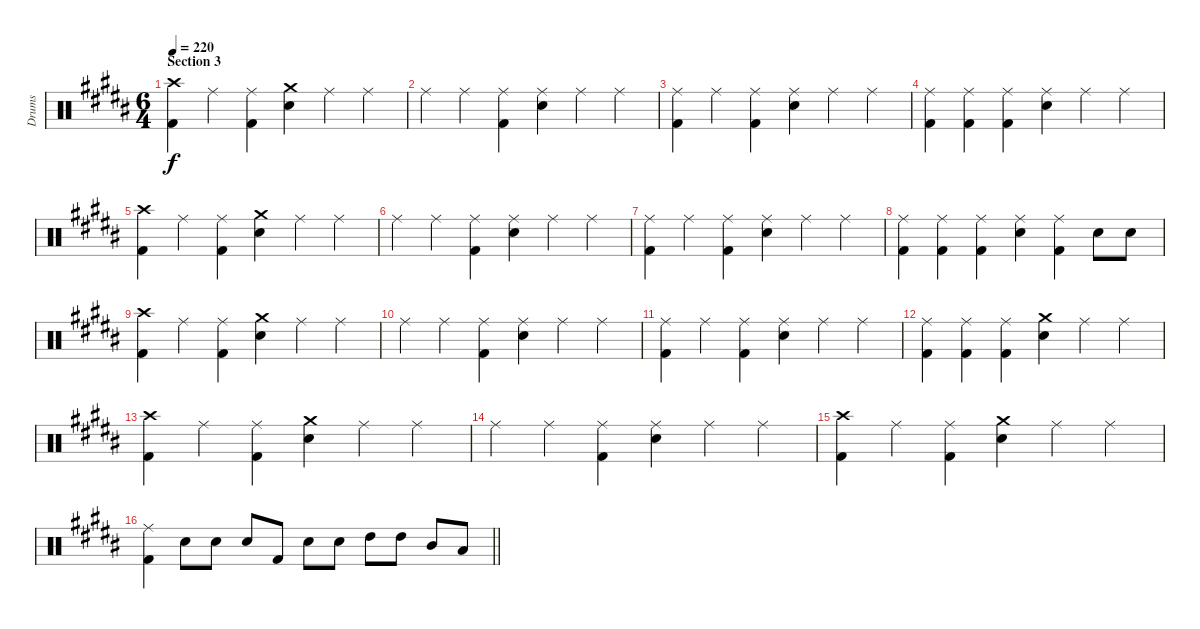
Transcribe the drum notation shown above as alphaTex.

\track ("Drums" "Drums") {instrument percussion}
\staff {score}
\articulation defaults
\ts (6 4)
\section ("" "Section 3")
\tempo 220
\clef neutral
\ks g#minor
("Crash high (hit)" "Kick (hit) 2").4{dy f} "Ride (middle)".4 ("Ride (middle)" "Kick (hit) 2").4 ("Crash medium (hit)" "Electric Snare (hit)").4 "Ride (middle)".4 "Ride (middle)".4 |
"Ride (middle)".4 "Ride (middle)".4 ("Ride (middle)" "Kick (hit) 2").4 ("Ride (middle)" "Electric Snare (hit)").4 "Ride (middle)".4 "Ride (middle)".4 |
("Ride (middle)" "Kick (hit) 2").4 "Ride (middle)".4 ("Ride (middle)" "Kick (hit) 2").4 ("Ride (middle)" "Electric Snare (hit)").4 "Ride (middle)".4 "Ride (middle)".4 |
("Ride (middle)" "Kick (hit) 2").4 ("Ride (middle)" "Kick (hit) 2").4 ("Ride (middle)" "Kick (hit) 2").4 ("Ride (middle)" "Electric Snare (hit)").4 "Ride (middle)".4 "Ride (middle)".4 |
("Crash high (hit)" "Kick (hit) 2").4 "Ride (middle)".4 ("Ride (middle)" "Kick (hit) 2").4 ("Crash medium (hit)" "Electric Snare (hit)").4 "Ride (middle)".4 "Ride (middle)".4 |
"Ride (middle)".4 "Ride (middle)".4 ("Ride (middle)" "Kick (hit) 2").4 ("Ride (middle)" "Electric Snare (hit)").4 "Ride (middle)".4 "Ride (middle)".4 |
("Ride (middle)" "Kick (hit) 2").4 "Ride (middle)".4 ("Ride (middle)" "Kick (hit) 2").4 ("Ride (middle)" "Electric Snare (hit)").4 "Ride (middle)".4 "Ride (middle)".4 |
("Ride (middle)" "Kick (hit) 2").4 ("Ride (middle)" "Kick (hit) 2").4 ("Ride (middle)" "Kick (hit) 2").4 ("Ride (middle)" "Electric Snare (hit)").4 ("Ride (middle)" "Kick (hit) 2").4 "Electric Snare (hit)".8 "Electric Snare (hit)".8 |
("Crash high (hit)" "Kick (hit) 2").4 "Ride (middle)".4 ("Ride (middle)" "Kick (hit) 2").4 ("Crash medium (hit)" "Electric Snare (hit)").4 "Ride (middle)".4 "Ride (middle)".4 |
"Ride (middle)".4 "Ride (middle)".4 ("Ride (middle)" "Kick (hit) 2").4 ("Ride (middle)" "Electric Snare (hit)").4 "Ride (middle)".4 "Ride (middle)".4 |
("Ride (middle)" "Kick (hit) 2").4 "Ride (middle)".4 ("Ride (middle)" "Kick (hit) 2").4 ("Ride (middle)" "Electric Snare (hit)").4 "Ride (middle)".4 "Ride (middle)".4 |
("Ride (middle)" "Kick (hit) 2").4 ("Ride (middle)" "Kick (hit) 2").4 ("Ride (middle)" "Kick (hit) 2").4 ("Crash medium (hit)" "Electric Snare (hit)").4 "Ride (middle)".4 "Ride (middle)".4 |
("Crash high (hit)" "Kick (hit) 2").4 "Ride (middle)".4 ("Ride (middle)" "Kick (hit) 2").4 ("Crash medium (hit)" "Electric Snare (hit)").4 "Ride (middle)".4 "Ride (middle)".4 |
"Ride (middle)".4 "Ride (middle)".4 ("Ride (middle)" "Kick (hit) 2").4 ("Ride (middle)" "Electric Snare (hit)").4 "Ride (middle)".4 "Ride (middle)".4 |
("Crash high (hit)" "Kick (hit) 2").4 "Ride (middle)".4 ("Ride (middle)" "Kick (hit) 2").4 ("Crash medium (hit)" "Electric Snare (hit)").4 "Ride (middle)".4 "Ride (middle)".4 |
\barLineRight lightlight
("Ride (middle)" "Kick (hit) 2").4 "Electric Snare (hit)".8 "Electric Snare (hit)".8 "Electric Snare (hit)".8 "Kick (hit) 2".8 "Electric Snare (hit)".8 "Electric Snare (hit)".8 "High Tom (hit)".8 "High Tom (hit)".8 "Mid Tom (hit)".8 "Low Tom (hit)".8
